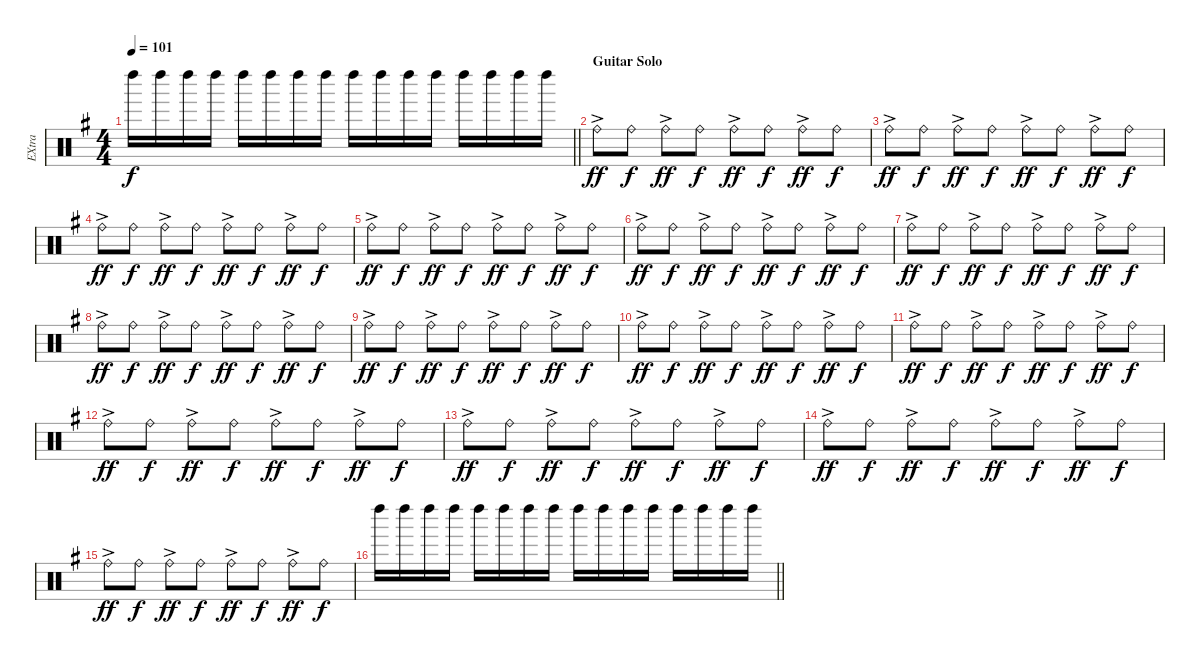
\track ("EXtra" "EXtra") {instrument percussion}
\staff {score}
\articulation defaults
\ts (4 4)
\tempo 101
\clef neutral
\barLineRight lightlight
\ks g "Left Maraca (hit)".16{dy f} "Left Maraca (hit)".16 "Left Maraca (hit)".16 "Left Maraca (hit)".16 "Left Maraca (hit)".16 "Left Maraca (hit)".16 "Left Maraca (hit)".16 "Left Maraca (hit)".16 "Left Maraca (hit)".16 "Left Maraca (hit)".16 "Left Maraca (hit)".16 "Left Maraca (hit)".16 "Left Maraca (hit)".16 "Left Maraca (hit)".16 "Left Maraca (hit)".16 "Left Maraca (hit)".16
|
\section ("" "Guitar Solo")
"Ride (bell)"{ac}.8{dy ff} "Ride (bell)".8{dy f} "Ride (bell)"{ac}.8{dy ff} "Ride (bell)".8{dy f} "Ride (bell)"{ac}.8{dy ff} "Ride (bell)".8{dy f} "Ride (bell)"{ac}.8{dy ff} "Ride (bell)".8{dy f} |
"Ride (bell)"{ac}.8{dy ff} "Ride (bell)".8{dy f} "Ride (bell)"{ac}.8{dy ff} "Ride (bell)".8{dy f} "Ride (bell)"{ac}.8{dy ff} "Ride (bell)".8{dy f} "Ride (bell)"{ac}.8{dy ff} "Ride (bell)".8{dy f} |
"Ride (bell)"{ac}.8{dy ff} "Ride (bell)".8{dy f} "Ride (bell)"{ac}.8{dy ff} "Ride (bell)".8{dy f} "Ride (bell)"{ac}.8{dy ff} "Ride (bell)".8{dy f} "Ride (bell)"{ac}.8{dy ff} "Ride (bell)".8{dy f} |
"Ride (bell)"{ac}.8{dy ff} "Ride (bell)".8{dy f} "Ride (bell)"{ac}.8{dy ff} "Ride (bell)".8{dy f} "Ride (bell)"{ac}.8{dy ff} "Ride (bell)".8{dy f} "Ride (bell)"{ac}.8{dy ff} "Ride (bell)".8{dy f} |
"Ride (bell)"{ac}.8{dy ff} "Ride (bell)".8{dy f} "Ride (bell)"{ac}.8{dy ff} "Ride (bell)".8{dy f} "Ride (bell)"{ac}.8{dy ff} "Ride (bell)".8{dy f} "Ride (bell)"{ac}.8{dy ff} "Ride (bell)".8{dy f} |
"Ride (bell)"{ac}.8{dy ff} "Ride (bell)".8{dy f} "Ride (bell)"{ac}.8{dy ff} "Ride (bell)".8{dy f} "Ride (bell)"{ac}.8{dy ff} "Ride (bell)".8{dy f} "Ride (bell)"{ac}.8{dy ff} "Ride (bell)".8{dy f} |
"Ride (bell)"{ac}.8{dy ff} "Ride (bell)".8{dy f} "Ride (bell)"{ac}.8{dy ff} "Ride (bell)".8{dy f} "Ride (bell)"{ac}.8{dy ff} "Ride (bell)".8{dy f} "Ride (bell)"{ac}.8{dy ff} "Ride (bell)".8{dy f} |
"Ride (bell)"{ac}.8{dy ff} "Ride (bell)".8{dy f} "Ride (bell)"{ac}.8{dy ff} "Ride (bell)".8{dy f} "Ride (bell)"{ac}.8{dy ff} "Ride (bell)".8{dy f} "Ride (bell)"{ac}.8{dy ff} "Ride (bell)".8{dy f} |
"Ride (bell)"{ac}.8{dy ff} "Ride (bell)".8{dy f} "Ride (bell)"{ac}.8{dy ff} "Ride (bell)".8{dy f} "Ride (bell)"{ac}.8{dy ff} "Ride (bell)".8{dy f} "Ride (bell)"{ac}.8{dy ff} "Ride (bell)".8{dy f} |
"Ride (bell)"{ac}.8{dy ff} "Ride (bell)".8{dy f} "Ride (bell)"{ac}.8{dy ff} "Ride (bell)".8{dy f} "Ride (bell)"{ac}.8{dy ff} "Ride (bell)".8{dy f} "Ride (bell)"{ac}.8{dy ff} "Ride (bell)".8{dy f} |
"Ride (bell)"{ac}.8{dy ff} "Ride (bell)".8{dy f} "Ride (bell)"{ac}.8{dy ff} "Ride (bell)".8{dy f} "Ride (bell)"{ac}.8{dy ff} "Ride (bell)".8{dy f} "Ride (bell)"{ac}.8{dy ff} "Ride (bell)".8{dy f} |
"Ride (bell)"{ac}.8{dy ff} "Ride (bell)".8{dy f} "Ride (bell)"{ac}.8{dy ff} "Ride (bell)".8{dy f} "Ride (bell)"{ac}.8{dy ff} "Ride (bell)".8{dy f} "Ride (bell)"{ac}.8{dy ff} "Ride (bell)".8{dy f} |
"Ride (bell)"{ac}.8{dy ff} "Ride (bell)".8{dy f} "Ride (bell)"{ac}.8{dy ff} "Ride (bell)".8{dy f} "Ride (bell)"{ac}.8{dy ff} "Ride (bell)".8{dy f} "Ride (bell)"{ac}.8{dy ff} "Ride (bell)".8{dy f} |
"Ride (bell)"{ac}.8{dy ff} "Ride (bell)".8{dy f} "Ride (bell)"{ac}.8{dy ff} "Ride (bell)".8{dy f} "Ride (bell)"{ac}.8{dy ff} "Ride (bell)".8{dy f} "Ride (bell)"{ac}.8{dy ff} "Ride (bell)".8{dy f} |
\barLineRight lightlight "Left Maraca (hit)".16 "Left Maraca (hit)".16 "Left Maraca (hit)".16 "Left Maraca (hit)".16 "Left Maraca (hit)".16 "Left Maraca (hit)".16 "Left Maraca (hit)".16 "Left Maraca (hit)".16 "Left Maraca (hit)".16 "Left Maraca (hit)".16 "Left Maraca (hit)".16 "Left Maraca (hit)".16 "Left Maraca (hit)".16 "Left Maraca (hit)".16 "Left Maraca (hit)".16 "Left Maraca (hit)".16
